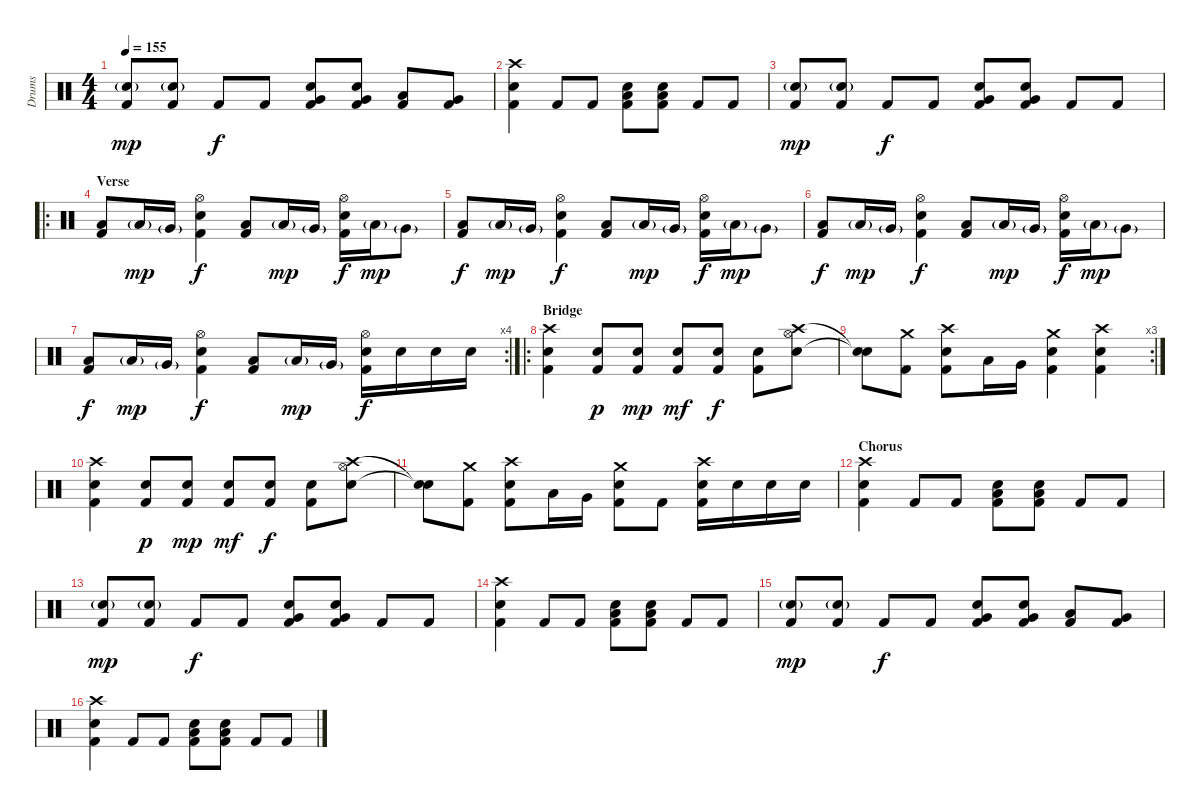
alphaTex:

\track ("Drums" "Drums") {instrument percussion}
\staff {score}
\articulation defaults
\ts (4 4)
\tempo 155
\clef neutral
\ks c
("Electric Snare (hit)"{g} "Kick (hit) 2").8{dy mp} ("Electric Snare (hit)"{g} "Kick (hit) 2").8 "Kick (hit) 2".8{dy f} "Kick (hit) 2".8 ("Very Low Tom (hit)" "Electric Snare (hit)" "Kick (hit) 2").8 ("Very Low Tom (hit)" "Electric Snare (hit)" "Kick (hit) 2").8 ("Low Tom (hit)" "Kick (hit) 2").8 ("Very Low Tom (hit)" "Kick (hit) 2").8 |
("Crash high (hit)" "Electric Snare (hit)" "Kick (hit) 2").4 "Kick (hit) 2".8 "Kick (hit) 2".8 ("Low Tom (hit)" "Electric Snare (hit)" "Kick (hit) 2").8 ("Low Tom (hit)" "Electric Snare (hit)" "Kick (hit) 2").8 "Kick (hit) 2".8 "Kick (hit) 2".8 |
("Electric Snare (hit)"{g} "Kick (hit) 2").8{dy mp} ("Electric Snare (hit)"{g} "Kick (hit) 2").8 "Kick (hit) 2".8{dy f} "Kick (hit) 2".8 ("Very Low Tom (hit)" "Electric Snare (hit)" "Kick (hit) 2").8 ("Very Low Tom (hit)" "Electric Snare (hit)" "Kick (hit) 2").8 "Kick (hit) 2".8 "Kick (hit) 2".8 |
\ro
\section ("" "Verse")
("Low Tom (hit)" "Kick (hit) 2").8 "Low Tom (hit)"{g}.16{dy mp} "Very Low Tom (hit)"{g}.16 ("Hi-Hat (open)" "Electric Snare (hit)" "Kick (hit) 2").4{dy f} ("Low Tom (hit)" "Kick (hit) 2").8 "Low Tom (hit)"{g}.16{dy mp} "Very Low Tom (hit)"{g}.16 ("Hi-Hat (open)" "Electric Snare (hit)" "Kick (hit) 2").16{dy f} "Low Tom (hit)"{g}.16{dy mp} "Very Low Tom (hit)"{g}.8 |
("Low Tom (hit)" "Kick (hit) 2").8{dy f} "Low Tom (hit)"{g}.16{dy mp} "Very Low Tom (hit)"{g}.16 ("Hi-Hat (open)" "Electric Snare (hit)" "Kick (hit) 2").4{dy f} ("Low Tom (hit)" "Kick (hit) 2").8 "Low Tom (hit)"{g}.16{dy mp} "Very Low Tom (hit)"{g}.16 ("Hi-Hat (open)" "Electric Snare (hit)" "Kick (hit) 2").16{dy f} "Low Tom (hit)"{g}.16{dy mp} "Very Low Tom (hit)"{g}.8 |
("Low Tom (hit)" "Kick (hit) 2").8{dy f} "Low Tom (hit)"{g}.16{dy mp} "Very Low Tom (hit)"{g}.16 ("Hi-Hat (open)" "Electric Snare (hit)" "Kick (hit) 2").4{dy f} ("Low Tom (hit)" "Kick (hit) 2").8 "Low Tom (hit)"{g}.16{dy mp} "Very Low Tom (hit)"{g}.16 ("Hi-Hat (open)" "Electric Snare (hit)" "Kick (hit) 2").16{dy f} "Low Tom (hit)"{g}.16{dy mp} "Very Low Tom (hit)"{g}.8 |
\rc 4
("Low Tom (hit)" "Kick (hit) 2").8{dy f} "Low Tom (hit)"{g}.16{dy mp} "Very Low Tom (hit)"{g}.16 ("Hi-Hat (open)" "Electric Snare (hit)" "Kick (hit) 2").4{dy f} ("Low Tom (hit)" "Kick (hit) 2").8 "Low Tom (hit)"{g}.16{dy mp} "Very Low Tom (hit)"{g}.16 ("Hi-Hat (open)" "Electric Snare (hit)" "Kick (hit) 2").16{dy f} "Electric Snare (hit)".16 "Electric Snare (hit)".16 "Electric Snare (hit)".16 |
\ro
\section ("" "Bridge")
("Crash high (hit)" "Electric Snare (hit)" "Kick (hit) 2").4 ("Electric Snare (hit)" "Kick (hit) 2").8{dy p} ("Electric Snare (hit)" "Kick (hit) 2").8{dy mp} ("Electric Snare (hit)" "Kick (hit) 2").8{dy mf} ("Electric Snare (hit)" "Kick (hit) 2").8{dy f} ("Electric Snare (hit)" "Kick (hit) 2").8 ("Crash high (hit)" "Electric Snare (hit)" "Hi-Hat (open)").8 |
\rc 3
("Snare (hit)"{t} "Snare (hit)"{t}).8 ("Crash medium (hit)" "Kick (hit) 2").8 ("Crash high (hit)" "Electric Snare (hit)" "Kick (hit) 2").8 "Low Tom (hit)".16 "Very Low Tom (hit)".16 ("Crash medium (hit)" "Electric Snare (hit)" "Kick (hit) 2").4 ("Crash high (hit)" "Electric Snare (hit)" "Kick (hit) 2").4 |
("Crash high (hit)" "Electric Snare (hit)" "Kick (hit) 2").4 ("Electric Snare (hit)" "Kick (hit) 2").8{dy p} ("Electric Snare (hit)" "Kick (hit) 2").8{dy mp} ("Electric Snare (hit)" "Kick (hit) 2").8{dy mf} ("Electric Snare (hit)" "Kick (hit) 2").8{dy f} ("Electric Snare (hit)" "Kick (hit) 2").8 ("Crash high (hit)" "Electric Snare (hit)" "Hi-Hat (open)").8 |
("Snare (hit)"{t} "Snare (hit)"{t}).8 ("Crash medium (hit)" "Kick (hit) 2").8 ("Crash high (hit)" "Electric Snare (hit)" "Kick (hit) 2").8 "Low Tom (hit)".16 "Very Low Tom (hit)".16 ("Crash medium (hit)" "Electric Snare (hit)" "Kick (hit) 2").8 "Kick (hit) 2".8 ("Crash high (hit)" "Electric Snare (hit)" "Kick (hit) 2").16 "Electric Snare (hit)".16 "Electric Snare (hit)".16 "Electric Snare (hit)".16 |
\section ("" "Chorus")
("Crash high (hit)" "Electric Snare (hit)" "Kick (hit) 2").4 "Kick (hit) 2".8 "Kick (hit) 2".8 ("Low Tom (hit)" "Electric Snare (hit)" "Kick (hit) 2").8 ("Low Tom (hit)" "Electric Snare (hit)" "Kick (hit) 2").8 "Kick (hit) 2".8 "Kick (hit) 2".8 |
("Electric Snare (hit)"{g} "Kick (hit) 2").8{dy mp} ("Electric Snare (hit)"{g} "Kick (hit) 2").8 "Kick (hit) 2".8{dy f} "Kick (hit) 2".8 ("Very Low Tom (hit)" "Electric Snare (hit)" "Kick (hit) 2").8 ("Very Low Tom (hit)" "Electric Snare (hit)" "Kick (hit) 2").8 "Kick (hit) 2".8 "Kick (hit) 2".8 |
("Crash high (hit)" "Electric Snare (hit)" "Kick (hit) 2").4 "Kick (hit) 2".8 "Kick (hit) 2".8 ("Low Tom (hit)" "Electric Snare (hit)" "Kick (hit) 2").8 ("Low Tom (hit)" "Electric Snare (hit)" "Kick (hit) 2").8 "Kick (hit) 2".8 "Kick (hit) 2".8 |
("Electric Snare (hit)"{g} "Kick (hit) 2").8{dy mp} ("Electric Snare (hit)"{g} "Kick (hit) 2").8 "Kick (hit) 2".8{dy f} "Kick (hit) 2".8 ("Very Low Tom (hit)" "Electric Snare (hit)" "Kick (hit) 2").8 ("Very Low Tom (hit)" "Electric Snare (hit)" "Kick (hit) 2").8 ("Low Tom (hit)" "Kick (hit) 2").8 ("Very Low Tom (hit)" "Kick (hit) 2").8 |
("Crash high (hit)" "Electric Snare (hit)" "Kick (hit) 2").4 "Kick (hit) 2".8 "Kick (hit) 2".8 ("Low Tom (hit)" "Electric Snare (hit)" "Kick (hit) 2").8 ("Low Tom (hit)" "Electric Snare (hit)" "Kick (hit) 2").8 "Kick (hit) 2".8 "Kick (hit) 2".8
